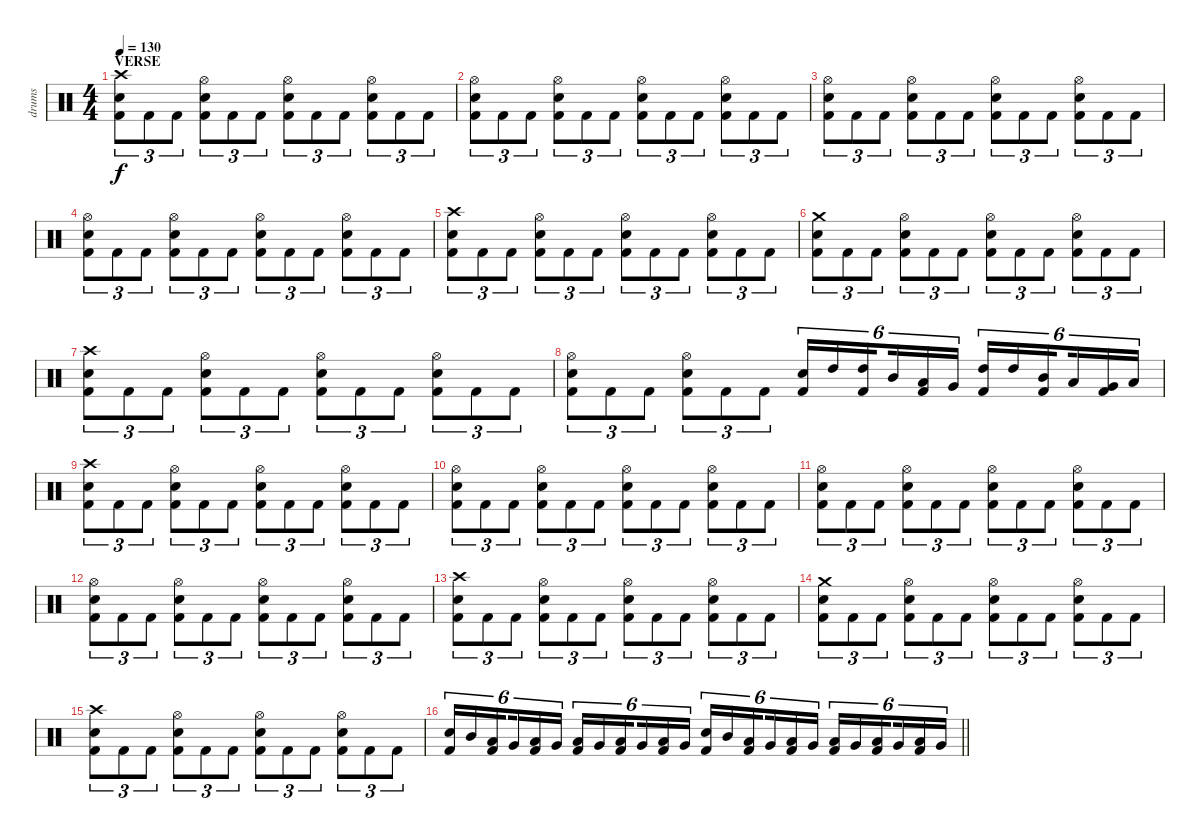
\track ("drums" "drums") {instrument percussion}
\staff {score}
\articulation defaults
\ts (4 4)
\section ("" "VERSE")
\tempo 130
\clef neutral
\ks c
("Crash high (hit)" "Electric Snare (hit)" "Kick (hit) 2").8{tu (3 2) dy f} "Kick (hit) 2".8{tu (3 2)} "Kick (hit) 2".8{tu (3 2)} ("Hi-Hat (open)" "Electric Snare (hit)" "Kick (hit) 2").8{tu (3 2)} "Kick (hit) 2".8{tu (3 2)} "Kick (hit) 2".8{tu (3 2)} ("Hi-Hat (open)" "Electric Snare (hit)" "Kick (hit) 2").8{tu (3 2)} "Kick (hit) 2".8{tu (3 2)} "Kick (hit) 2".8{tu (3 2)} ("Hi-Hat (open)" "Electric Snare (hit)" "Kick (hit) 2").8{tu (3 2)} "Kick (hit) 2".8{tu (3 2)} "Kick (hit) 2".8{tu (3 2)} |
("Hi-Hat (open)" "Electric Snare (hit)" "Kick (hit) 2").8{tu (3 2)} "Kick (hit) 2".8{tu (3 2)} "Kick (hit) 2".8{tu (3 2)} ("Hi-Hat (open)" "Electric Snare (hit)" "Kick (hit) 2").8{tu (3 2)} "Kick (hit) 2".8{tu (3 2)} "Kick (hit) 2".8{tu (3 2)} ("Hi-Hat (open)" "Electric Snare (hit)" "Kick (hit) 2").8{tu (3 2)} "Kick (hit) 2".8{tu (3 2)} "Kick (hit) 2".8{tu (3 2)} ("Hi-Hat (open)" "Electric Snare (hit)" "Kick (hit) 2").8{tu (3 2)} "Kick (hit) 2".8{tu (3 2)} "Kick (hit) 2".8{tu (3 2)} |
("Hi-Hat (open)" "Electric Snare (hit)" "Kick (hit) 2").8{tu (3 2)} "Kick (hit) 2".8{tu (3 2)} "Kick (hit) 2".8{tu (3 2)} ("Hi-Hat (open)" "Electric Snare (hit)" "Kick (hit) 2").8{tu (3 2)} "Kick (hit) 2".8{tu (3 2)} "Kick (hit) 2".8{tu (3 2)} ("Hi-Hat (open)" "Electric Snare (hit)" "Kick (hit) 2").8{tu (3 2)} "Kick (hit) 2".8{tu (3 2)} "Kick (hit) 2".8{tu (3 2)} ("Hi-Hat (open)" "Electric Snare (hit)" "Kick (hit) 2").8{tu (3 2)} "Kick (hit) 2".8{tu (3 2)} "Kick (hit) 2".8{tu (3 2)} |
("Hi-Hat (open)" "Electric Snare (hit)" "Kick (hit) 2").8{tu (3 2)} "Kick (hit) 2".8{tu (3 2)} "Kick (hit) 2".8{tu (3 2)} ("Hi-Hat (open)" "Electric Snare (hit)" "Kick (hit) 2").8{tu (3 2)} "Kick (hit) 2".8{tu (3 2)} "Kick (hit) 2".8{tu (3 2)} ("Hi-Hat (open)" "Electric Snare (hit)" "Kick (hit) 2").8{tu (3 2)} "Kick (hit) 2".8{tu (3 2)} "Kick (hit) 2".8{tu (3 2)} ("Hi-Hat (open)" "Electric Snare (hit)" "Kick (hit) 2").8{tu (3 2)} "Kick (hit) 2".8{tu (3 2)} "Kick (hit) 2".8{tu (3 2)} |
("Crash high (hit)" "Electric Snare (hit)" "Kick (hit) 2").8{tu (3 2)} "Kick (hit) 2".8{tu (3 2)} "Kick (hit) 2".8{tu (3 2)} ("Hi-Hat (open)" "Electric Snare (hit)" "Kick (hit) 2").8{tu (3 2)} "Kick (hit) 2".8{tu (3 2)} "Kick (hit) 2".8{tu (3 2)} ("Hi-Hat (open)" "Electric Snare (hit)" "Kick (hit) 2").8{tu (3 2)} "Kick (hit) 2".8{tu (3 2)} "Kick (hit) 2".8{tu (3 2)} ("Hi-Hat (open)" "Electric Snare (hit)" "Kick (hit) 2").8{tu (3 2)} "Kick (hit) 2".8{tu (3 2)} "Kick (hit) 2".8{tu (3 2)} |
("Crash medium (hit)" "Electric Snare (hit)" "Kick (hit) 2").8{tu (3 2)} "Kick (hit) 2".8{tu (3 2)} "Kick (hit) 2".8{tu (3 2)} ("Hi-Hat (open)" "Electric Snare (hit)" "Kick (hit) 2").8{tu (3 2)} "Kick (hit) 2".8{tu (3 2)} "Kick (hit) 2".8{tu (3 2)} ("Hi-Hat (open)" "Electric Snare (hit)" "Kick (hit) 2").8{tu (3 2)} "Kick (hit) 2".8{tu (3 2)} "Kick (hit) 2".8{tu (3 2)} ("Hi-Hat (open)" "Electric Snare (hit)" "Kick (hit) 2").8{tu (3 2)} "Kick (hit) 2".8{tu (3 2)} "Kick (hit) 2".8{tu (3 2)} |
("Crash high (hit)" "Electric Snare (hit)" "Kick (hit) 2").8{tu (3 2)} "Kick (hit) 2".8{tu (3 2)} "Kick (hit) 2".8{tu (3 2)} ("Hi-Hat (open)" "Electric Snare (hit)" "Kick (hit) 2").8{tu (3 2)} "Kick (hit) 2".8{tu (3 2)} "Kick (hit) 2".8{tu (3 2)} ("Hi-Hat (open)" "Electric Snare (hit)" "Kick (hit) 2").8{tu (3 2)} "Kick (hit) 2".8{tu (3 2)} "Kick (hit) 2".8{tu (3 2)} ("Hi-Hat (open)" "Electric Snare (hit)" "Kick (hit) 2").8{tu (3 2)} "Kick (hit) 2".8{tu (3 2)} "Kick (hit) 2".8{tu (3 2)} |
("Hi-Hat (open)" "Electric Snare (hit)" "Kick (hit) 2").8{tu (3 2)} "Kick (hit) 2".8{tu (3 2)} "Kick (hit) 2".8{tu (3 2)} ("Hi-Hat (open)" "Electric Snare (hit)" "Kick (hit) 2").8{tu (3 2)} "Kick (hit) 2".8{tu (3 2)} "Kick (hit) 2".8{tu (3 2)} ("Electric Snare (hit)" "Kick (hit) 2").16{tu (6 4)} "High Tom (hit)".16{tu (6 4)} ("High Tom (hit)" "Kick (hit) 2").16{tu (6 4) beam splitsecondary} "Mid Tom (hit)".16{tu (6 4)} ("Low Tom (hit)" "Kick (hit) 2").16{tu (6 4)} "Very Low Tom (hit)".16{tu (6 4)} ("High Tom (hit)" "Kick (hit) 2").16{tu (6 4)} "High Tom (hit)".16{tu (6 4)} ("Mid Tom (hit)" "Kick (hit) 2").16{tu (6 4) beam splitsecondary} "Low Tom (hit)".16{tu (6 4)} ("Very Low Tom (hit)" "Kick (hit) 2").16{tu (6 4)} "Low Floor Tom (hit)".16{tu (6 4)} |
("Crash high (hit)" "Electric Snare (hit)" "Kick (hit) 2").8{tu (3 2)} "Kick (hit) 2".8{tu (3 2)} "Kick (hit) 2".8{tu (3 2)} ("Hi-Hat (open)" "Electric Snare (hit)" "Kick (hit) 2").8{tu (3 2)} "Kick (hit) 2".8{tu (3 2)} "Kick (hit) 2".8{tu (3 2)} ("Hi-Hat (open)" "Electric Snare (hit)" "Kick (hit) 2").8{tu (3 2)} "Kick (hit) 2".8{tu (3 2)} "Kick (hit) 2".8{tu (3 2)} ("Hi-Hat (open)" "Electric Snare (hit)" "Kick (hit) 2").8{tu (3 2)} "Kick (hit) 2".8{tu (3 2)} "Kick (hit) 2".8{tu (3 2)} |
("Hi-Hat (open)" "Electric Snare (hit)" "Kick (hit) 2").8{tu (3 2)} "Kick (hit) 2".8{tu (3 2)} "Kick (hit) 2".8{tu (3 2)} ("Hi-Hat (open)" "Electric Snare (hit)" "Kick (hit) 2").8{tu (3 2)} "Kick (hit) 2".8{tu (3 2)} "Kick (hit) 2".8{tu (3 2)} ("Hi-Hat (open)" "Electric Snare (hit)" "Kick (hit) 2").8{tu (3 2)} "Kick (hit) 2".8{tu (3 2)} "Kick (hit) 2".8{tu (3 2)} ("Hi-Hat (open)" "Electric Snare (hit)" "Kick (hit) 2").8{tu (3 2)} "Kick (hit) 2".8{tu (3 2)} "Kick (hit) 2".8{tu (3 2)} |
("Hi-Hat (open)" "Electric Snare (hit)" "Kick (hit) 2").8{tu (3 2)} "Kick (hit) 2".8{tu (3 2)} "Kick (hit) 2".8{tu (3 2)} ("Hi-Hat (open)" "Electric Snare (hit)" "Kick (hit) 2").8{tu (3 2)} "Kick (hit) 2".8{tu (3 2)} "Kick (hit) 2".8{tu (3 2)} ("Hi-Hat (open)" "Electric Snare (hit)" "Kick (hit) 2").8{tu (3 2)} "Kick (hit) 2".8{tu (3 2)} "Kick (hit) 2".8{tu (3 2)} ("Hi-Hat (open)" "Electric Snare (hit)" "Kick (hit) 2").8{tu (3 2)} "Kick (hit) 2".8{tu (3 2)} "Kick (hit) 2".8{tu (3 2)} |
("Hi-Hat (open)" "Electric Snare (hit)" "Kick (hit) 2").8{tu (3 2)} "Kick (hit) 2".8{tu (3 2)} "Kick (hit) 2".8{tu (3 2)} ("Hi-Hat (open)" "Electric Snare (hit)" "Kick (hit) 2").8{tu (3 2)} "Kick (hit) 2".8{tu (3 2)} "Kick (hit) 2".8{tu (3 2)} ("Hi-Hat (open)" "Electric Snare (hit)" "Kick (hit) 2").8{tu (3 2)} "Kick (hit) 2".8{tu (3 2)} "Kick (hit) 2".8{tu (3 2)} ("Hi-Hat (open)" "Electric Snare (hit)" "Kick (hit) 2").8{tu (3 2)} "Kick (hit) 2".8{tu (3 2)} "Kick (hit) 2".8{tu (3 2)} |
("Crash high (hit)" "Electric Snare (hit)" "Kick (hit) 2").8{tu (3 2)} "Kick (hit) 2".8{tu (3 2)} "Kick (hit) 2".8{tu (3 2)} ("Hi-Hat (open)" "Electric Snare (hit)" "Kick (hit) 2").8{tu (3 2)} "Kick (hit) 2".8{tu (3 2)} "Kick (hit) 2".8{tu (3 2)} ("Hi-Hat (open)" "Electric Snare (hit)" "Kick (hit) 2").8{tu (3 2)} "Kick (hit) 2".8{tu (3 2)} "Kick (hit) 2".8{tu (3 2)} ("Hi-Hat (open)" "Electric Snare (hit)" "Kick (hit) 2").8{tu (3 2)} "Kick (hit) 2".8{tu (3 2)} "Kick (hit) 2".8{tu (3 2)} |
("Crash medium (hit)" "Electric Snare (hit)" "Kick (hit) 2").8{tu (3 2)} "Kick (hit) 2".8{tu (3 2)} "Kick (hit) 2".8{tu (3 2)} ("Hi-Hat (open)" "Electric Snare (hit)" "Kick (hit) 2").8{tu (3 2)} "Kick (hit) 2".8{tu (3 2)} "Kick (hit) 2".8{tu (3 2)} ("Hi-Hat (open)" "Electric Snare (hit)" "Kick (hit) 2").8{tu (3 2)} "Kick (hit) 2".8{tu (3 2)} "Kick (hit) 2".8{tu (3 2)} ("Hi-Hat (open)" "Electric Snare (hit)" "Kick (hit) 2").8{tu (3 2)} "Kick (hit) 2".8{tu (3 2)} "Kick (hit) 2".8{tu (3 2)} |
("Crash high (hit)" "Electric Snare (hit)" "Kick (hit) 2").8{tu (3 2)} "Kick (hit) 2".8{tu (3 2)} "Kick (hit) 2".8{tu (3 2)} ("Hi-Hat (open)" "Electric Snare (hit)" "Kick (hit) 2").8{tu (3 2)} "Kick (hit) 2".8{tu (3 2)} "Kick (hit) 2".8{tu (3 2)} ("Hi-Hat (open)" "Electric Snare (hit)" "Kick (hit) 2").8{tu (3 2)} "Kick (hit) 2".8{tu (3 2)} "Kick (hit) 2".8{tu (3 2)} ("Hi-Hat (open)" "Electric Snare (hit)" "Kick (hit) 2").8{tu (3 2)} "Kick (hit) 2".8{tu (3 2)} "Kick (hit) 2".8{tu (3 2)} |
\barLineRight lightlight
("Electric Snare (hit)" "Kick (hit) 2").16{tu (6 4)} "Mid Tom (hit)".16{tu (6 4)} ("Low Tom (hit)" "Kick (hit) 2").16{tu (6 4) beam splitsecondary} "Very Low Tom (hit)".16{tu (6 4)} ("Low Floor Tom (hit)" "Kick (hit) 2").16{tu (6 4)} "Very Low Tom (hit)".16{tu (6 4)} ("Low Tom (hit)" "Kick (hit) 2").16{tu (6 4)} "Very Low Tom (hit)".16{tu (6 4)} ("Low Tom (hit)" "Kick (hit) 2").16{tu (6 4) beam splitsecondary} "Very Low Tom (hit)".16{tu (6 4)} ("Low Floor Tom (hit)" "Kick (hit) 2").16{tu (6 4)} "Very Low Tom (hit)".16{tu (6 4)} ("Electric Snare (hit)" "Kick (hit) 2").16{tu (6 4)} "Mid Tom (hit)".16{tu (6 4)} ("Low Tom (hit)" "Kick (hit) 2").16{tu (6 4) beam splitsecondary} "Very Low Tom (hit)".16{tu (6 4)} ("Low Floor Tom (hit)" "Kick (hit) 2").16{tu (6 4)} "Very Low Tom (hit)".16{tu (6 4)} ("Low Tom (hit)" "Kick (hit) 2").16{tu (6 4)} "Very Low Tom (hit)".16{tu (6 4)} ("Low Tom (hit)" "Kick (hit) 2").16{tu (6 4) beam splitsecondary} "Very Low Tom (hit)".16{tu (6 4)} ("Low Floor Tom (hit)" "Kick (hit) 2").16{tu (6 4)} "Very Low Tom (hit)".16{tu (6 4)}
